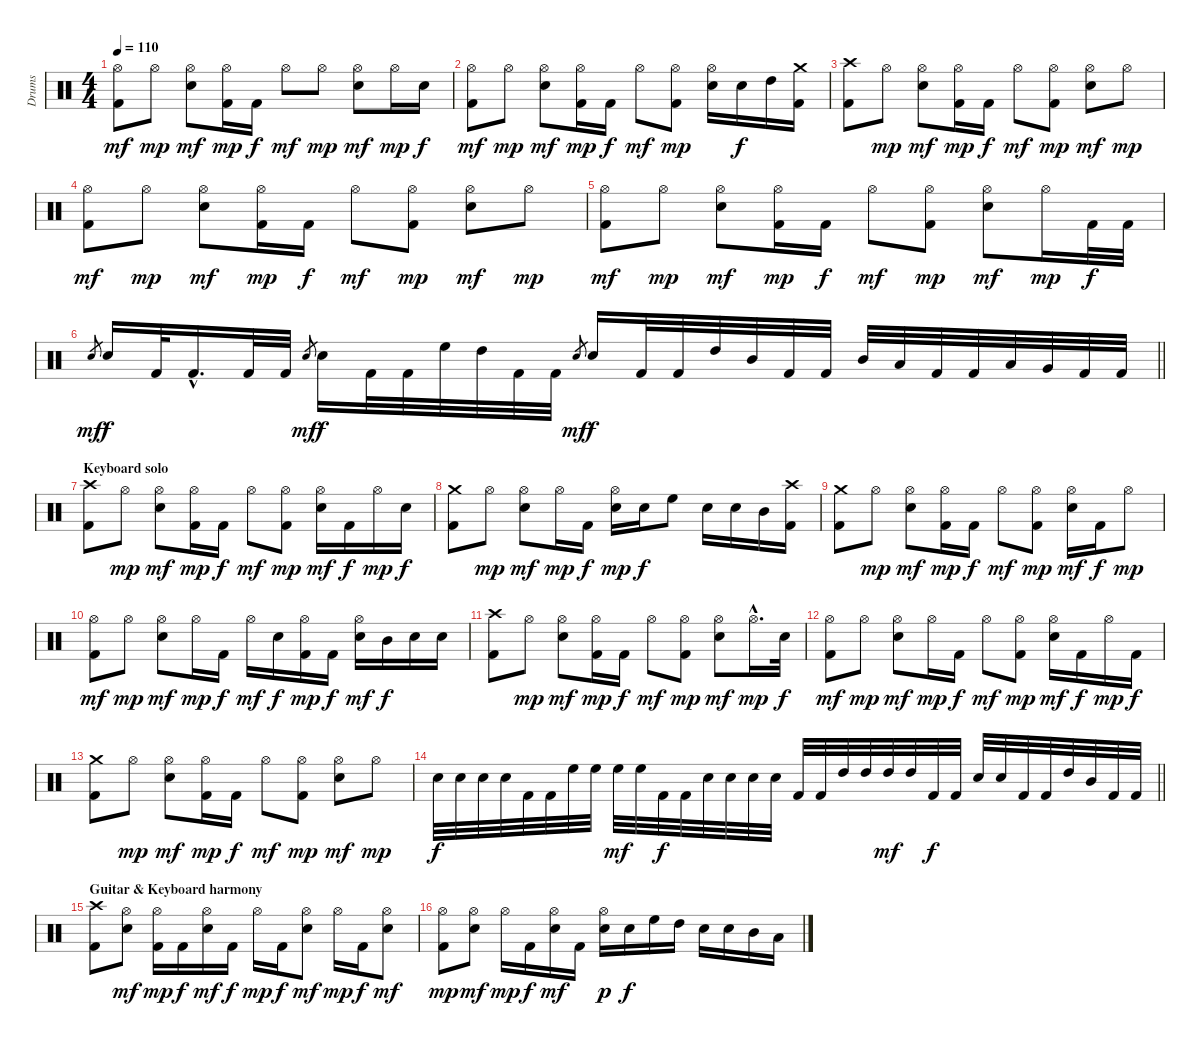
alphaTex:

\track ("Drums" "Drums") {instrument percussion}
\staff {score}
\articulation defaults
\ts (4 4)
\tempo 110
\clef neutral
\ks c
("Hi-Hat (open)" "Kick (hit) 2").8{dy mf} "Hi-Hat (open)".8{dy mp} ("Hi-Hat (open)" "Electric Snare (hit)").8{dy mf} ("Hi-Hat (open)" "Kick (hit) 2").16{dy mp} "Kick (hit) 2".16{dy f} "Hi-Hat (open)".8{dy mf} "Hi-Hat (open)".8{dy mp} ("Hi-Hat (open)" "Electric Snare (hit)").8{dy mf} "Hi-Hat (open)".16{dy mp} "Electric Snare (hit)".16{dy f} |
("Hi-Hat (open)" "Kick (hit) 2").8{dy mf} "Hi-Hat (open)".8{dy mp} ("Hi-Hat (open)" "Electric Snare (hit)").8{dy mf} ("Hi-Hat (open)" "Kick (hit) 2").16{dy mp} "Kick (hit) 2".16{dy f} "Hi-Hat (open)".8{dy mf} ("Hi-Hat (open)" "Kick (hit) 2").8{dy mp} ("Hi-Hat (open)" "Electric Snare (hit)").16 "Electric Snare (hit)".16{dy f} "High Tom (hit)".16 ("Crash medium (hit)" "Kick (hit) 2").16 |
("Crash high (hit)" "Kick (hit) 2").8 "Hi-Hat (open)".8{dy mp} ("Hi-Hat (open)" "Electric Snare (hit)").8{dy mf} ("Hi-Hat (open)" "Kick (hit) 2").16{dy mp} "Kick (hit) 2".16{dy f} "Hi-Hat (open)".8{dy mf} ("Hi-Hat (open)" "Kick (hit) 2").8{dy mp} ("Hi-Hat (open)" "Electric Snare (hit)").8{dy mf} "Hi-Hat (open)".8{dy mp} |
("Hi-Hat (open)" "Kick (hit) 2").8{dy mf} "Hi-Hat (open)".8{dy mp} ("Hi-Hat (open)" "Electric Snare (hit)").8{dy mf} ("Hi-Hat (open)" "Kick (hit) 2").16{dy mp} "Kick (hit) 2".16{dy f} "Hi-Hat (open)".8{dy mf} ("Hi-Hat (open)" "Kick (hit) 2").8{dy mp} ("Hi-Hat (open)" "Electric Snare (hit)").8{dy mf} "Hi-Hat (open)".8{dy mp} |
("Hi-Hat (open)" "Kick (hit) 2").8{dy mf} "Hi-Hat (open)".8{dy mp} ("Hi-Hat (open)" "Electric Snare (hit)").8{dy mf} ("Hi-Hat (open)" "Kick (hit) 2").16{dy mp} "Kick (hit) 2".16{dy f} "Hi-Hat (open)".8{dy mf} ("Hi-Hat (open)" "Kick (hit) 2").8{dy mp} ("Hi-Hat (open)" "Electric Snare (hit)").8{dy mf} "Hi-Hat (open)".16{dy mp} "Kick (hit) 2".32{dy f} "Kick (hit) 2".32 |
\barLineRight lightlight "Electric Snare (hit)".8{gr dy mf} "Electric Snare (hit)".16{dy f} "Kick (hit) 2".32 "Kick (hit) 2"{hac}.16{d} "Kick (hit) 2".32 "Kick (hit) 2".32 "Electric Snare (hit)".8{gr dy mf} "Electric Snare (hit)".16{dy f} "Kick (hit) 2".32 "Kick (hit) 2".32 "High Floor Tom (hit)".32 "High Tom (hit)".32 "Kick (hit) 2".32 "Kick (hit) 2".32 "Electric Snare (hit)".8{gr dy mf} "Electric Snare (hit)".16{dy f} "Kick (hit) 2".32 "Kick (hit) 2".32 "High Tom (hit)".32 "Mid Tom (hit)".32 "Kick (hit) 2".32 "Kick (hit) 2".32 "Mid Tom (hit)".32 "Low Tom (hit)".32 "Kick (hit) 2".32 "Kick (hit) 2".32 "Low Tom (hit)".32 "Very Low Tom (hit)".32 "Kick (hit) 2".32 "Kick (hit) 2".32
|
\section ("" "Keyboard solo")
("Crash high (hit)" "Kick (hit) 2").8 "Hi-Hat (open)".8{dy mp} ("Hi-Hat (open)" "Electric Snare (hit)").8{dy mf} ("Hi-Hat (open)" "Kick (hit) 2").16{dy mp} "Kick (hit) 2".16{dy f} "Hi-Hat (open)".8{dy mf} ("Hi-Hat (open)" "Kick (hit) 2").8{dy mp} ("Hi-Hat (open)" "Electric Snare (hit)").16{dy mf} "Kick (hit) 2".16{dy f} "Hi-Hat (open)".16{dy mp} "Electric Snare (hit)".16{dy f} |
("Crash medium (hit)" "Kick (hit) 2").8 "Hi-Hat (open)".8{dy mp} ("Hi-Hat (open)" "Electric Snare (hit)").8{dy mf} "Hi-Hat (open)".16{dy mp} "Kick (hit) 2".16{dy f} ("Hi-Hat (open)" "Electric Snare (hit)").16{dy mp} "Electric Snare (hit)".16{dy f} "High Floor Tom (hit)".8 "Electric Snare (hit)".16 "Electric Snare (hit)".16 "Mid Tom (hit)".16 ("Crash high (hit)" "Kick (hit) 2").16 |
("Crash medium (hit)" "Kick (hit) 2").8 "Hi-Hat (open)".8{dy mp} ("Hi-Hat (open)" "Electric Snare (hit)").8{dy mf} ("Hi-Hat (open)" "Kick (hit) 2").16{dy mp} "Kick (hit) 2".16{dy f} "Hi-Hat (open)".8{dy mf} ("Hi-Hat (open)" "Kick (hit) 2").8{dy mp} ("Hi-Hat (open)" "Electric Snare (hit)").16{dy mf} "Kick (hit) 2".16{dy f} "Hi-Hat (open)".8{dy mp} |
("Hi-Hat (open)" "Kick (hit) 2").8{dy mf} "Hi-Hat (open)".8{dy mp} ("Hi-Hat (open)" "Electric Snare (hit)").8{dy mf} "Hi-Hat (open)".16{dy mp} "Kick (hit) 2".16{dy f} "Hi-Hat (open)".16{dy mf} "Electric Snare (hit)".16{dy f} ("Hi-Hat (open)" "Kick (hit) 2").16{dy mp} "Kick (hit) 2".16{dy f} ("Hi-Hat (open)" "Electric Snare (hit)").16{dy mf} "Mid Tom (hit)".16{dy f} "Electric Snare (hit)".16 "Electric Snare (hit)".16 |
("Crash high (hit)" "Kick (hit) 2").8 "Hi-Hat (open)".8{dy mp} ("Hi-Hat (open)" "Electric Snare (hit)").8{dy mf} ("Hi-Hat (open)" "Kick (hit) 2").16{dy mp} "Kick (hit) 2".16{dy f} "Hi-Hat (open)".8{dy mf} ("Hi-Hat (open)" "Kick (hit) 2").8{dy mp} ("Hi-Hat (open)" "Electric Snare (hit)").8{dy mf} "Hi-Hat (open)"{hac}.16{d dy mp} "Electric Snare (hit)".32{dy f} |
("Hi-Hat (open)" "Kick (hit) 2").8{dy mf} "Hi-Hat (open)".8{dy mp} ("Hi-Hat (open)" "Electric Snare (hit)").8{dy mf} "Hi-Hat (open)".16{dy mp} "Kick (hit) 2".16{dy f} "Hi-Hat (open)".8{dy mf} ("Hi-Hat (open)" "Kick (hit) 2").8{dy mp} ("Hi-Hat (open)" "Electric Snare (hit)").16{dy mf} "Kick (hit) 2".16{dy f} "Hi-Hat (open)".16{dy mp} "Kick (hit) 2".16{dy f} |
("Crash medium (hit)" "Kick (hit) 2").8 "Hi-Hat (open)".8{dy mp} ("Hi-Hat (open)" "Electric Snare (hit)").8{dy mf} ("Hi-Hat (open)" "Kick (hit) 2").16{dy mp} "Kick (hit) 2".16{dy f} "Hi-Hat (open)".8{dy mf} ("Hi-Hat (open)" "Kick (hit) 2").8{dy mp} ("Hi-Hat (open)" "Electric Snare (hit)").8{dy mf} "Hi-Hat (open)".8{dy mp} |
\barLineRight lightlight "Electric Snare (hit)".32{dy f} "Electric Snare (hit)".32 "Electric Snare (hit)".32 "Electric Snare (hit)".32 "Kick (hit) 2".32 "Kick (hit) 2".32 "High Floor Tom (hit)".32 "High Floor Tom (hit)".32 "High Floor Tom (hit)".32{dy mf} "High Floor Tom (hit)".32 "Kick (hit) 2".32{dy f} "Kick (hit) 2".32 "Electric Snare (hit)".32 "Electric Snare (hit)".32 "Electric Snare (hit)".32 "Electric Snare (hit)".32 "Kick (hit) 2".32 "Kick (hit) 2".32 "High Tom (hit)".32 "High Tom (hit)".32 "High Tom (hit)".32{dy mf} "High Tom (hit)".32 "Kick (hit) 2".32{dy f} "Kick (hit) 2".32 "Electric Snare (hit)".32 "Electric Snare (hit)".32 "Kick (hit) 2".32 "Kick (hit) 2".32 "High Tom (hit)".32 "Mid Tom (hit)".32 "Kick (hit) 2".32 "Kick (hit) 2".32
|
\section ("" "Guitar & Keyboard harmony")
("Crash high (hit)" "Kick (hit) 2").8 ("Hi-Hat (open)" "Electric Snare (hit)").8{dy mf} ("Hi-Hat (open)" "Kick (hit) 2").16{dy mp} "Kick (hit) 2".16{dy f} ("Hi-Hat (open)" "Electric Snare (hit)").16{dy mf} "Kick (hit) 2".16{dy f} "Hi-Hat (open)".16{dy mp} "Kick (hit) 2".16{dy f} ("Hi-Hat (open)" "Electric Snare (hit)").8{dy mf} "Hi-Hat (open)".16{dy mp} "Kick (hit) 2".16{dy f} ("Hi-Hat (open)" "Electric Snare (hit)").8{dy mf} |
("Hi-Hat (open)" "Kick (hit) 2").8{dy mp} ("Hi-Hat (open)" "Electric Snare (hit)").8{dy mf} "Hi-Hat (open)".16{dy mp} "Kick (hit) 2".16{dy f} ("Hi-Hat (open)" "Electric Snare (hit)").16{dy mf} "Kick (hit) 2".16 ("Hi-Hat (open)" "Electric Snare (hit)").16{dy p} "Electric Snare (hit)".16{dy f} "High Floor Tom (hit)".16 "High Tom (hit)".16 "Electric Snare (hit)".16 "Electric Snare (hit)".16 "Mid Tom (hit)".16 "Low Tom (hit)".16
